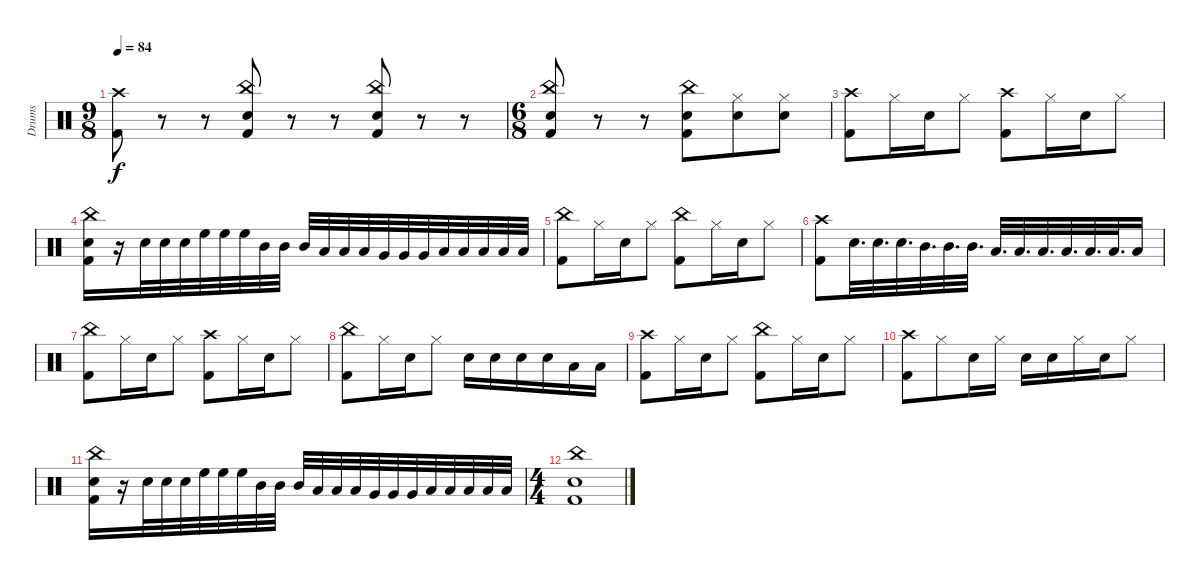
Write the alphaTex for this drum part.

\track ("Drums" "Drums") {instrument percussion}
\staff {score}
\articulation defaults
\ts (9 8)
\tempo 84
\clef neutral
\ks c
("Crash high (hit)" "Kick (hit) 2").8{dy f} r.8 r.8 ("China (hit)" "Electric Snare (hit)" "Kick (hit) 2").8 r.8 r.8 ("China (hit)" "Electric Snare (hit)" "Kick (hit) 2").8 r.8 r.8 |
\ts (6 8)
("China (hit)" "Electric Snare (hit)" "Kick (hit) 2").8 r.8 r.8 ("China (hit)" "Electric Snare (hit)" "Kick (hit) 2").8 ("Hi-Hat (closed)" "Electric Snare (hit)").8 ("Hi-Hat (closed)" "Electric Snare (hit)").8 |
("Crash high (hit)" "Kick (hit) 2").8 "Hi-Hat (closed)".16 "Electric Snare (hit)".16 "Hi-Hat (closed)".8 ("Crash high (hit)" "Kick (hit) 2").8 "Hi-Hat (closed)".16 "Electric Snare (hit)".16 "Hi-Hat (closed)".8 |
("China (hit)" "Electric Snare (hit)" "Kick (hit) 2").16 r.16 "Electric Snare (hit)".32 "Electric Snare (hit)".32 "Electric Snare (hit)".32 "High Floor Tom (hit)".32 "High Floor Tom (hit)".32 "High Floor Tom (hit)".32 "Mid Tom (hit)".32 "Mid Tom (hit)".32 "Mid Tom (hit)".32 "Low Tom (hit)".32 "Low Tom (hit)".32 "Low Tom (hit)".32 "Very Low Tom (hit)".32 "Very Low Tom (hit)".32 "Very Low Tom (hit)".32 "Low Floor Tom (hit)".32 "Low Floor Tom (hit)".32 "Low Floor Tom (hit)".32 "Low Floor Tom (hit)".32 "Low Floor Tom (hit)".32 |
("China (hit)" "Kick (hit) 2").8 "Hi-Hat (closed)".16 "Electric Snare (hit)".16 "Hi-Hat (closed)".8 ("China (hit)" "Kick (hit) 2").8 "Hi-Hat (closed)".16 "Electric Snare (hit)".16 "Hi-Hat (closed)".8 |
("Crash high (hit)" "Kick (hit) 2").8 "Electric Snare (hit)".32{d} "Electric Snare (hit)".32{d} "Electric Snare (hit)".32{d} "Mid Tom (hit)".32{d} "Mid Tom (hit)".32{d} "Mid Tom (hit)".32{d} "Low Tom (hit)".32{d} "Low Tom (hit)".32{d} "Low Tom (hit)".32{d} "Low Floor Tom (hit)".32{d} "Low Floor Tom (hit)".32{d} "Low Floor Tom (hit)".32{d} "Low Floor Tom (hit)".16 |
("China (hit)" "Kick (hit) 2").8 "Hi-Hat (closed)".16 "Electric Snare (hit)".16 "Hi-Hat (closed)".8 ("Crash high (hit)" "Kick (hit) 2").8 "Hi-Hat (closed)".16 "Electric Snare (hit)".16 "Hi-Hat (closed)".8 |
("China (hit)" "Kick (hit) 2").8 "Hi-Hat (closed)".16 "Electric Snare (hit)".16 "Hi-Hat (closed)".8 "Electric Snare (hit)".16 "Electric Snare (hit)".16 "Electric Snare (hit)".16 "Electric Snare (hit)".16 "Low Tom (hit)".16 "Low Tom (hit)".16 |
("Crash high (hit)" "Kick (hit) 2").8 "Hi-Hat (closed)".16 "Electric Snare (hit)".16 "Hi-Hat (closed)".8 ("China (hit)" "Kick (hit) 2").8 "Hi-Hat (closed)".16 "Electric Snare (hit)".16 "Hi-Hat (closed)".8 |
("Crash high (hit)" "Kick (hit) 2").8 "Hi-Hat (closed)".8 "Electric Snare (hit)".16 "Hi-Hat (closed)".16 "Electric Snare (hit)".16 "Electric Snare (hit)".16 "Hi-Hat (closed)".16 "Electric Snare (hit)".16 "Hi-Hat (closed)".8 |
("China (hit)" "Electric Snare (hit)" "Kick (hit) 2").16 r.16 "Electric Snare (hit)".32 "Electric Snare (hit)".32 "Electric Snare (hit)".32 "High Floor Tom (hit)".32 "High Floor Tom (hit)".32 "High Floor Tom (hit)".32 "Mid Tom (hit)".32 "Mid Tom (hit)".32 "Mid Tom (hit)".32 "Low Tom (hit)".32 "Low Tom (hit)".32 "Low Tom (hit)".32 "Very Low Tom (hit)".32 "Very Low Tom (hit)".32 "Very Low Tom (hit)".32 "Low Floor Tom (hit)".32 "Low Floor Tom (hit)".32 "Low Floor Tom (hit)".32 "Low Floor Tom (hit)".32 "Low Floor Tom (hit)".32 |
\ts (4 4)
("China (hit)" "Electric Snare (hit)" "Kick (hit) 2").1
